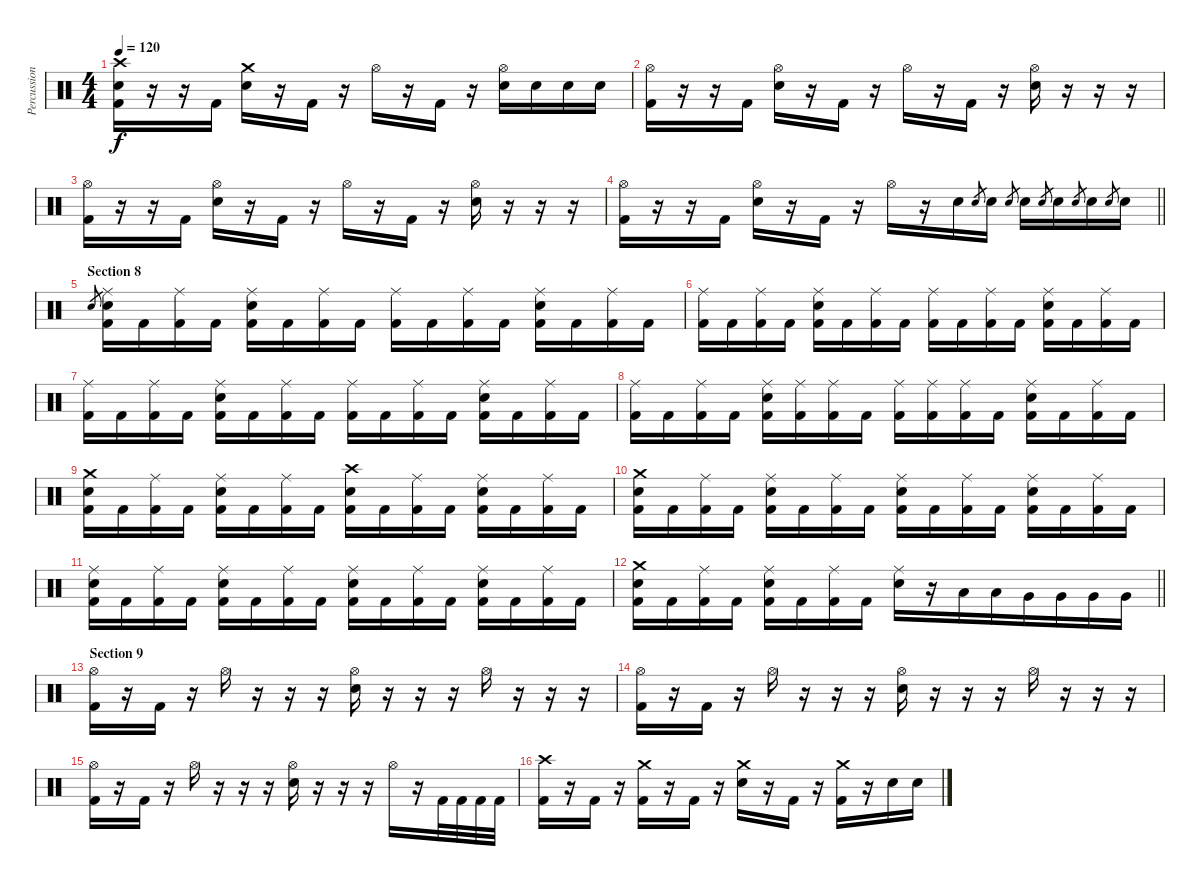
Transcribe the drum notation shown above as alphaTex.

\track ("Percussion" "Percussion") {instrument percussion}
\staff {score}
\articulation defaults
\ts (4 4)
\tempo 120
\clef neutral
\ks c
("Crash high (hit)" "Electric Snare (hit)" "Kick (hit) 2").16{dy f} r.16 r.16 "Kick (hit) 2".16 ("Crash medium (hit)" "Electric Snare (hit)").16 r.16 "Kick (hit) 2".16 r.16 "Hi-Hat (open)".16 r.16 "Kick (hit) 2".16 r.16 ("Hi-Hat (open)" "Electric Snare (hit)").16 "Electric Snare (hit)".16 "Snare (hit) 2".16 "Snare (hit) 2".16 |
("Hi-Hat (open)" "Kick (hit) 2").16 r.16 r.16 "Kick (hit) 2".16 ("Hi-Hat (open)" "Electric Snare (hit)").16 r.16 "Kick (hit) 2".16 r.16 "Hi-Hat (open)".16 r.16 "Kick (hit) 2".16 r.16 ("Hi-Hat (open)" "Electric Snare (hit)").16 r.16 r.16 r.16 |
("Hi-Hat (open)" "Kick (hit) 2").16 r.16 r.16 "Kick (hit) 2".16 ("Hi-Hat (open)" "Electric Snare (hit)").16 r.16 "Kick (hit) 2".16 r.16 "Hi-Hat (open)".16 r.16 "Kick (hit) 2".16 r.16 ("Hi-Hat (open)" "Electric Snare (hit)").16 r.16 r.16 r.16 |
\barLineRight lightlight
("Hi-Hat (open)" "Kick (hit) 2").16 r.16 r.16 "Kick (hit) 2".16 ("Hi-Hat (open)" "Electric Snare (hit)").16 r.16 "Kick (hit) 2".16 r.16 "Hi-Hat (open)".16 r.16 "Electric Snare (hit)".16 "Electric Snare (hit)".8{gr} "Electric Snare (hit)".16 "Electric Snare (hit)".8{gr} "Electric Snare (hit)".16 "Electric Snare (hit)".8{gr} "Electric Snare (hit)".16 "Electric Snare (hit)".8{gr} "Electric Snare (hit)".16 "Electric Snare (hit)".8{gr} "Electric Snare (hit)".16 |
\section ("" "Section 8")
"Electric Snare (hit)".8{gr} ("Ride (middle)" "Electric Snare (hit)" "Kick (hit) 2").16 "Kick (hit) 2".16 ("Ride (middle)" "Kick (hit) 2").16 "Kick (hit) 2".16 ("Ride (middle)" "Electric Snare (hit)" "Kick (hit) 2").16 "Kick (hit) 2".16 ("Ride (middle)" "Kick (hit) 2").16 "Kick (hit) 2".16 ("Ride (middle)" "Kick (hit) 2").16 "Kick (hit) 2".16 ("Ride (middle)" "Kick (hit) 2").16 "Kick (hit) 2".16 ("Ride (middle)" "Electric Snare (hit)" "Kick (hit) 2").16 "Kick (hit) 2".16 ("Ride (middle)" "Kick (hit) 2").16 "Kick (hit) 2".16 |
("Ride (middle)" "Kick (hit) 2").16 "Kick (hit) 2".16 ("Ride (middle)" "Kick (hit) 2").16 "Kick (hit) 2".16 ("Ride (middle)" "Electric Snare (hit)" "Kick (hit) 2").16 "Kick (hit) 2".16 ("Ride (middle)" "Kick (hit) 2").16 "Kick (hit) 2".16 ("Ride (middle)" "Kick (hit) 2").16 "Kick (hit) 2".16 ("Ride (middle)" "Kick (hit) 2").16 "Kick (hit) 2".16 ("Ride (middle)" "Electric Snare (hit)" "Kick (hit) 2").16 "Kick (hit) 2".16 ("Ride (middle)" "Kick (hit) 2").16 "Kick (hit) 2".16 |
("Ride (middle)" "Kick (hit) 2").16 "Kick (hit) 2".16 ("Ride (middle)" "Kick (hit) 2").16 "Kick (hit) 2".16 ("Ride (middle)" "Electric Snare (hit)" "Kick (hit) 2").16 "Kick (hit) 2".16 ("Ride (middle)" "Kick (hit) 2").16 "Kick (hit) 2".16 ("Ride (middle)" "Kick (hit) 2").16 "Kick (hit) 2".16 ("Ride (middle)" "Kick (hit) 2").16 "Kick (hit) 2".16 ("Ride (middle)" "Electric Snare (hit)" "Kick (hit) 2").16 "Kick (hit) 2".16 ("Ride (middle)" "Kick (hit) 2").16 "Kick (hit) 2".16 |
("Ride (middle)" "Kick (hit) 2").16 "Kick (hit) 2".16 ("Ride (middle)" "Kick (hit) 2").16 "Kick (hit) 2".16 ("Ride (middle)" "Electric Snare (hit)" "Kick (hit) 2").16 ("Ride (middle)" "Kick (hit) 2").16 ("Ride (middle)" "Kick (hit) 2").16 "Kick (hit) 2".16 ("Ride (middle)" "Kick (hit) 2").16 ("Ride (middle)" "Kick (hit) 2").16 ("Ride (middle)" "Kick (hit) 2").16 "Kick (hit) 2".16 ("Ride (middle)" "Electric Snare (hit)" "Kick (hit) 2").16 "Kick (hit) 2".16 ("Ride (middle)" "Kick (hit) 2").16 "Kick (hit) 2".16 |
("Crash medium (hit)" "Electric Snare (hit)" "Kick (hit) 2").16 "Kick (hit) 2".16 ("Ride (middle)" "Kick (hit) 2").16 "Kick (hit) 2".16 ("Ride (middle)" "Electric Snare (hit)" "Kick (hit) 2").16 "Kick (hit) 2".16 ("Ride (middle)" "Kick (hit) 2").16 "Kick (hit) 2".16 ("Crash high (hit)" "Electric Snare (hit)" "Kick (hit) 2").16 "Kick (hit) 2".16 ("Ride (middle)" "Kick (hit) 2").16 "Kick (hit) 2".16 ("Ride (middle)" "Electric Snare (hit)" "Kick (hit) 2").16 "Kick (hit) 2".16 ("Ride (middle)" "Kick (hit) 2").16 "Kick (hit) 2".16 |
("Crash medium (hit)" "Electric Snare (hit)" "Kick (hit) 2").16 "Kick (hit) 2".16 ("Ride (middle)" "Kick (hit) 2").16 "Kick (hit) 2".16 ("Ride (middle)" "Electric Snare (hit)" "Kick (hit) 2").16 "Kick (hit) 2".16 ("Ride (middle)" "Kick (hit) 2").16 "Kick (hit) 2".16 ("Ride (middle)" "Electric Snare (hit)" "Kick (hit) 2").16 "Kick (hit) 2".16 ("Ride (middle)" "Kick (hit) 2").16 "Kick (hit) 2".16 ("Ride (middle)" "Electric Snare (hit)" "Kick (hit) 2").16 "Kick (hit) 2".16 ("Ride (middle)" "Kick (hit) 2").16 "Kick (hit) 2".16 |
("Ride (middle)" "Electric Snare (hit)" "Kick (hit) 2").16 "Kick (hit) 2".16 ("Ride (middle)" "Kick (hit) 2").16 "Kick (hit) 2".16 ("Ride (middle)" "Electric Snare (hit)" "Kick (hit) 2").16 "Kick (hit) 2".16 ("Ride (middle)" "Kick (hit) 2").16 "Kick (hit) 2".16 ("Ride (middle)" "Electric Snare (hit)" "Kick (hit) 2").16 "Kick (hit) 2".16 ("Ride (middle)" "Kick (hit) 2").16 "Kick (hit) 2".16 ("Ride (middle)" "Electric Snare (hit)" "Kick (hit) 2").16 "Kick (hit) 2".16 ("Ride (middle)" "Kick (hit) 2").16 "Kick (hit) 2".16 |
\barLineRight lightlight
("Crash medium (hit)" "Electric Snare (hit)" "Kick (hit) 2").16 "Kick (hit) 2".16 ("Ride (middle)" "Kick (hit) 2").16 "Kick (hit) 2".16 ("Ride (middle)" "Electric Snare (hit)" "Kick (hit) 2").16 "Kick (hit) 2".16 ("Ride (middle)" "Kick (hit) 2").16 "Kick (hit) 2".16 ("Ride (middle)" "Electric Snare (hit)").16 r.16 "Low Tom (hit)".16 "Low Tom (hit)".16{beam merge} "Very Low Tom (hit)".16 "Very Low Tom (hit)".16 "Very Low Tom (hit)".16 "Very Low Tom (hit)".16 |
\section ("" "Section 9")
("Hi-Hat (open)" "Kick (hit) 2").16 r.16 "Kick (hit) 2".16 r.16 "Hi-Hat (open)".16 r.16 r.16 r.16 ("Hi-Hat (open)" "Electric Snare (hit)").16 r.16 r.16 r.16 "Hi-Hat (open)".16 r.16 r.16 r.16 |
("Hi-Hat (open)" "Kick (hit) 2").16 r.16 "Kick (hit) 2".16 r.16 "Hi-Hat (open)".16 r.16 r.16 r.16 ("Hi-Hat (open)" "Electric Snare (hit)").16 r.16 r.16 r.16 "Hi-Hat (open)".16 r.16 r.16 r.16 |
("Hi-Hat (open)" "Kick (hit) 2").16 r.16 "Kick (hit) 2".16 r.16 "Hi-Hat (open)".16 r.16 r.16 r.16 ("Hi-Hat (open)" "Electric Snare (hit)").16 r.16 r.16 r.16 "Hi-Hat (open)".16 r.16 "Kick (hit) 2".32 "Kick (hit) 2".32 "Kick (hit) 2".32 "Kick (hit) 2".32 |
("Crash high (hit)" "Kick (hit) 2").16 r.16 "Kick (hit) 2".16 r.16 ("Crash medium (hit)" "Kick (hit) 2").16 r.16 "Kick (hit) 2".16 r.16 ("Crash medium (hit)" "Electric Snare (hit)").16 r.16 "Kick (hit) 2".16 r.16 ("Crash medium (hit)" "Kick (hit) 2").16 r.16 "Electric Snare (hit)".16 "Electric Snare (hit)".16
